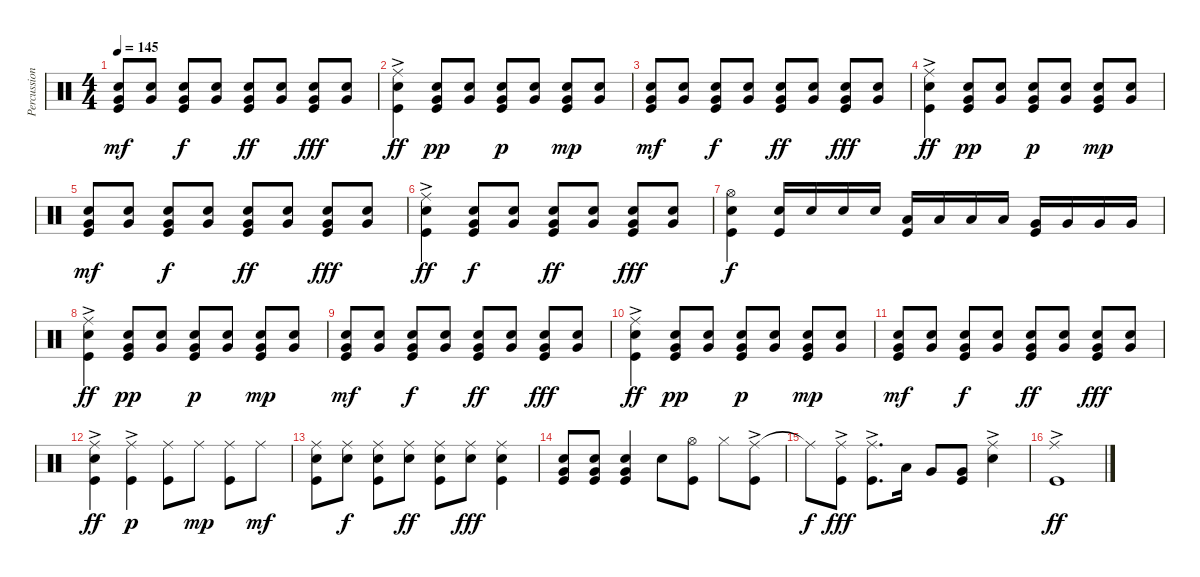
\track ("Percussion" "Percussion") {instrument percussion}
\staff {score}
\articulation defaults
\ts (4 4)
\tempo 145
\clef neutral
\ks c
("Snare (hit) 2" "Very Low Tom (hit)" "Kick (hit)").8{dy mf} ("Snare (hit) 2" "Very Low Tom (hit)").8 ("Snare (hit) 2" "Very Low Tom (hit)" "Kick (hit)").8{dy f} ("Snare (hit) 2" "Very Low Tom (hit)").8 ("Snare (hit) 2" "Very Low Tom (hit)" "Kick (hit)").8{dy ff} ("Snare (hit) 2" "Very Low Tom (hit)").8 ("Snare (hit) 2" "Very Low Tom (hit)" "Kick (hit)").8{dy fff} ("Snare (hit) 2" "Very Low Tom (hit)").8 |
("Ride (middle)"{ac} "Snare (hit) 2" "Kick (hit)").4{dy ff} ("Snare (hit) 2" "Very Low Tom (hit)" "Kick (hit)").8{dy pp} ("Snare (hit) 2" "Very Low Tom (hit)").8 ("Snare (hit) 2" "Very Low Tom (hit)" "Kick (hit)").8{dy p} ("Snare (hit) 2" "Very Low Tom (hit)").8 ("Snare (hit) 2" "Very Low Tom (hit)" "Kick (hit)").8{dy mp} ("Snare (hit) 2" "Very Low Tom (hit)").8 |
("Snare (hit) 2" "Very Low Tom (hit)" "Kick (hit)").8{dy mf} ("Snare (hit) 2" "Very Low Tom (hit)").8 ("Snare (hit) 2" "Very Low Tom (hit)" "Kick (hit)").8{dy f} ("Snare (hit) 2" "Very Low Tom (hit)").8 ("Snare (hit) 2" "Very Low Tom (hit)" "Kick (hit)").8{dy ff} ("Snare (hit) 2" "Very Low Tom (hit)").8 ("Snare (hit) 2" "Very Low Tom (hit)" "Kick (hit)").8{dy fff} ("Snare (hit) 2" "Very Low Tom (hit)").8 |
("Ride (middle)"{ac} "Snare (hit) 2" "Kick (hit)").4{dy ff} ("Snare (hit) 2" "Very Low Tom (hit)" "Kick (hit)").8{dy pp} ("Snare (hit) 2" "Very Low Tom (hit)").8 ("Snare (hit) 2" "Very Low Tom (hit)" "Kick (hit)").8{dy p} ("Snare (hit) 2" "Very Low Tom (hit)").8 ("Snare (hit) 2" "Very Low Tom (hit)" "Kick (hit)").8{dy mp} ("Snare (hit) 2" "Very Low Tom (hit)").8 |
("Snare (hit) 2" "Very Low Tom (hit)" "Kick (hit)").8{dy mf} ("Snare (hit) 2" "Very Low Tom (hit)").8 ("Snare (hit) 2" "Very Low Tom (hit)" "Kick (hit)").8{dy f} ("Snare (hit) 2" "Very Low Tom (hit)").8 ("Snare (hit) 2" "Very Low Tom (hit)" "Kick (hit)").8{dy ff} ("Snare (hit) 2" "Very Low Tom (hit)").8 ("Snare (hit) 2" "Very Low Tom (hit)" "Kick (hit)").8{dy fff} ("Snare (hit) 2" "Very Low Tom (hit)").8 |
("Ride (middle)"{ac} "Snare (hit) 2" "Kick (hit)").4{dy ff} ("Snare (hit) 2" "Very Low Tom (hit)" "Kick (hit)").8{dy f} ("Snare (hit) 2" "Very Low Tom (hit)").8 ("Snare (hit) 2" "Very Low Tom (hit)" "Kick (hit)").8{dy ff} ("Snare (hit) 2" "Very Low Tom (hit)").8 ("Snare (hit) 2" "Very Low Tom (hit)" "Kick (hit)").8{dy fff} ("Snare (hit) 2" "Very Low Tom (hit)").8 |
("Hi-Hat (open)" "Snare (hit) 2" "Kick (hit)").4{dy f} ("Snare (hit) 2" "Kick (hit)").16 "Snare (hit) 2".16 "Snare (hit) 2".16 "Snare (hit) 2".16 ("Low Tom (hit)" "Kick (hit)").16 "Low Tom (hit)".16 "Low Tom (hit)".16 "Low Tom (hit)".16 ("Very Low Tom (hit)" "Kick (hit)").16 "Very Low Tom (hit)".16 "Very Low Tom (hit)".16 "Very Low Tom (hit)".16 |
("Ride (middle)"{ac} "Snare (hit) 2" "Kick (hit)").4{dy ff} ("Snare (hit) 2" "Very Low Tom (hit)" "Kick (hit)").8{dy pp} ("Snare (hit) 2" "Very Low Tom (hit)").8 ("Snare (hit) 2" "Very Low Tom (hit)" "Kick (hit)").8{dy p} ("Snare (hit) 2" "Very Low Tom (hit)").8 ("Snare (hit) 2" "Very Low Tom (hit)" "Kick (hit)").8{dy mp} ("Snare (hit) 2" "Very Low Tom (hit)").8 |
("Snare (hit) 2" "Very Low Tom (hit)" "Kick (hit)").8{dy mf} ("Snare (hit) 2" "Very Low Tom (hit)").8 ("Snare (hit) 2" "Very Low Tom (hit)" "Kick (hit)").8{dy f} ("Snare (hit) 2" "Very Low Tom (hit)").8 ("Snare (hit) 2" "Very Low Tom (hit)" "Kick (hit)").8{dy ff} ("Snare (hit) 2" "Very Low Tom (hit)").8 ("Snare (hit) 2" "Very Low Tom (hit)" "Kick (hit)").8{dy fff} ("Snare (hit) 2" "Very Low Tom (hit)").8 |
("Ride (middle)"{ac} "Snare (hit) 2" "Kick (hit)").4{dy ff} ("Snare (hit) 2" "Very Low Tom (hit)" "Kick (hit)").8{dy pp} ("Snare (hit) 2" "Very Low Tom (hit)").8 ("Snare (hit) 2" "Very Low Tom (hit)" "Kick (hit)").8{dy p} ("Snare (hit) 2" "Very Low Tom (hit)").8 ("Snare (hit) 2" "Very Low Tom (hit)" "Kick (hit)").8{dy mp} ("Snare (hit) 2" "Very Low Tom (hit)").8 |
("Snare (hit) 2" "Very Low Tom (hit)" "Kick (hit)").8{dy mf} ("Snare (hit) 2" "Very Low Tom (hit)").8 ("Snare (hit) 2" "Very Low Tom (hit)" "Kick (hit)").8{dy f} ("Snare (hit) 2" "Very Low Tom (hit)").8 ("Snare (hit) 2" "Very Low Tom (hit)" "Kick (hit)").8{dy ff} ("Snare (hit) 2" "Very Low Tom (hit)").8 ("Snare (hit) 2" "Very Low Tom (hit)" "Kick (hit)").8{dy fff} ("Snare (hit) 2" "Very Low Tom (hit)").8 |
("Ride (middle)"{ac} "Snare (hit) 2" "Kick (hit)").4{dy ff} ("Ride (middle)"{ac} "Kick (hit)").4{dy p} ("Ride (middle)" "Kick (hit)").8 "Ride (middle)".8{dy mp} ("Ride (middle)" "Kick (hit)").8 "Ride (middle)".8{dy mf} |
("Ride (middle)" "Snare (hit) 2" "Kick (hit)").8 ("Ride (middle)" "Snare (hit) 2").8{dy f} ("Ride (middle)" "Snare (hit) 2" "Kick (hit)").8 ("Ride (middle)" "Snare (hit) 2").8{dy ff} ("Ride (middle)" "Snare (hit) 2" "Kick (hit)").8 ("Ride (middle)" "Snare (hit) 2").8{dy fff} ("Ride (middle)" "Snare (hit) 2" "Kick (hit)").4 |
("Snare (hit) 2" "Very Low Tom (hit)" "Kick (hit)").8 ("Snare (hit) 2" "Very Low Tom (hit)" "Kick (hit)").8 ("Snare (hit) 2" "Very Low Tom (hit)" "Kick (hit)").4 "Snare (hit) 2".8 ("Hi-Hat (open)" "Kick (hit)").8 "Hi-Hat (closed)".8 ("Ride (middle)"{ac} "Kick (hit)").8 |
"Ride (middle)"{t}.8{dy f} ("Ride (middle)"{ac} "Kick (hit)").8{dy fff} ("Ride (middle)"{ac} "Kick (hit)").8{d} "Low Tom (hit)".16 "Very Low Tom (hit)".8 ("Very Low Tom (hit)" "Kick (hit)").8 ("Ride (middle)"{ac} "Snare (hit) 2").4 |
("Ride (middle)"{ac} "Kick (hit)").1{dy ff}
